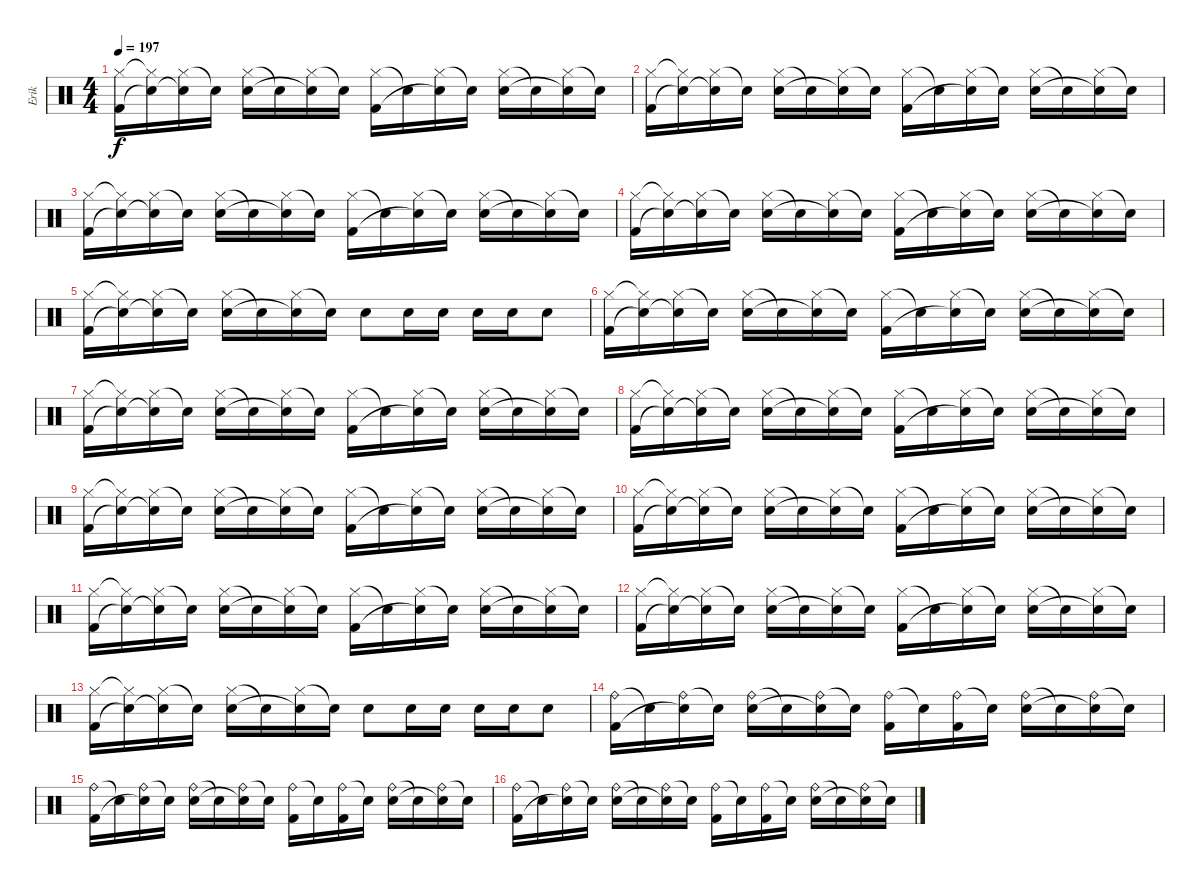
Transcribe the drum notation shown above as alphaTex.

\track ("Erik" "Erik") {instrument percussion}
\staff {score}
\articulation defaults
\ts (4 4)
\tempo 197
\clef neutral
\ks c
("Hi-Hat (closed)" "Kick (hit) 2").16{dy f} ("Hi-Hat (closed)"{t} "Electric Snare (hit)"{t}).16 ("Hi-Hat (closed)" "Snare (hit)"{t}).16 "Snare (hit)"{t}.16 ("Hi-Hat (closed)" "Electric Snare (hit)").16 "Snare (hit)"{t}.16 ("Hi-Hat (closed)" "Snare (hit)"{t}).16 "Snare (hit)"{t}.16 ("Hi-Hat (closed)" "Kick (hit) 2").16 "Snare (hit)"{t}.16 ("Hi-Hat (closed)" "Snare (hit)"{t}).16 "Snare (hit)"{t}.16 ("Hi-Hat (closed)" "Electric Snare (hit)").16 "Snare (hit)"{t}.16 ("Hi-Hat (closed)" "Snare (hit)"{t}).16 "Snare (hit)"{t}.16 |
("Hi-Hat (closed)" "Kick (hit) 2").16 ("Hi-Hat (closed)"{t} "Electric Snare (hit)"{t}).16 ("Hi-Hat (closed)" "Snare (hit)"{t}).16 "Snare (hit)"{t}.16 ("Hi-Hat (closed)" "Electric Snare (hit)").16 "Snare (hit)"{t}.16 ("Hi-Hat (closed)" "Snare (hit)"{t}).16 "Snare (hit)"{t}.16 ("Hi-Hat (closed)" "Kick (hit) 2").16 "Snare (hit)"{t}.16 ("Hi-Hat (closed)" "Snare (hit)"{t}).16 "Snare (hit)"{t}.16 ("Hi-Hat (closed)" "Electric Snare (hit)").16 "Snare (hit)"{t}.16 ("Hi-Hat (closed)" "Snare (hit)"{t}).16 "Snare (hit)"{t}.16 |
("Hi-Hat (closed)" "Kick (hit) 2").16 ("Hi-Hat (closed)"{t} "Electric Snare (hit)"{t}).16 ("Hi-Hat (closed)" "Snare (hit)"{t}).16 "Snare (hit)"{t}.16 ("Hi-Hat (closed)" "Electric Snare (hit)").16 "Snare (hit)"{t}.16 ("Hi-Hat (closed)" "Snare (hit)"{t}).16 "Snare (hit)"{t}.16 ("Hi-Hat (closed)" "Kick (hit) 2").16 "Snare (hit)"{t}.16 ("Hi-Hat (closed)" "Snare (hit)"{t}).16 "Snare (hit)"{t}.16 ("Hi-Hat (closed)" "Electric Snare (hit)").16 "Snare (hit)"{t}.16 ("Hi-Hat (closed)" "Snare (hit)"{t}).16 "Snare (hit)"{t}.16 |
("Hi-Hat (closed)" "Kick (hit) 2").16 ("Hi-Hat (closed)"{t} "Electric Snare (hit)"{t}).16 ("Hi-Hat (closed)" "Snare (hit)"{t}).16 "Snare (hit)"{t}.16 ("Hi-Hat (closed)" "Electric Snare (hit)").16 "Snare (hit)"{t}.16 ("Hi-Hat (closed)" "Snare (hit)"{t}).16 "Snare (hit)"{t}.16 ("Hi-Hat (closed)" "Kick (hit) 2").16 "Snare (hit)"{t}.16 ("Hi-Hat (closed)" "Snare (hit)"{t}).16 "Snare (hit)"{t}.16 ("Hi-Hat (closed)" "Electric Snare (hit)").16 "Snare (hit)"{t}.16 ("Hi-Hat (closed)" "Snare (hit)"{t}).16 "Snare (hit)"{t}.16 |
("Hi-Hat (closed)" "Kick (hit) 2").16 ("Hi-Hat (closed)"{t} "Electric Snare (hit)"{t}).16 ("Hi-Hat (closed)" "Snare (hit)"{t}).16 "Snare (hit)"{t}.16 ("Hi-Hat (closed)" "Electric Snare (hit)").16 "Snare (hit)"{t}.16 ("Hi-Hat (closed)" "Snare (hit)"{t}).16 "Snare (hit)"{t}.16 "Electric Snare (hit)".8 "Electric Snare (hit)".16 "Electric Snare (hit)".16 "Electric Snare (hit)".16 "Electric Snare (hit)".16 "Electric Snare (hit)".8 |
("Hi-Hat (closed)" "Kick (hit) 2").16 ("Hi-Hat (closed)"{t} "Electric Snare (hit)"{t}).16 ("Hi-Hat (closed)" "Snare (hit)"{t}).16 "Snare (hit)"{t}.16 ("Hi-Hat (closed)" "Electric Snare (hit)").16 "Snare (hit)"{t}.16 ("Hi-Hat (closed)" "Snare (hit)"{t}).16 "Snare (hit)"{t}.16 ("Hi-Hat (closed)" "Kick (hit) 2").16 "Snare (hit)"{t}.16 ("Hi-Hat (closed)" "Snare (hit)"{t}).16 "Snare (hit)"{t}.16 ("Hi-Hat (closed)" "Electric Snare (hit)").16 "Snare (hit)"{t}.16 ("Hi-Hat (closed)" "Snare (hit)"{t}).16 "Snare (hit)"{t}.16 |
("Hi-Hat (closed)" "Kick (hit) 2").16 ("Hi-Hat (closed)"{t} "Electric Snare (hit)"{t}).16 ("Hi-Hat (closed)" "Snare (hit)"{t}).16 "Snare (hit)"{t}.16 ("Hi-Hat (closed)" "Electric Snare (hit)").16 "Snare (hit)"{t}.16 ("Hi-Hat (closed)" "Snare (hit)"{t}).16 "Snare (hit)"{t}.16 ("Hi-Hat (closed)" "Kick (hit) 2").16 "Snare (hit)"{t}.16 ("Hi-Hat (closed)" "Snare (hit)"{t}).16 "Snare (hit)"{t}.16 ("Hi-Hat (closed)" "Electric Snare (hit)").16 "Snare (hit)"{t}.16 ("Hi-Hat (closed)" "Snare (hit)"{t}).16 "Snare (hit)"{t}.16 |
("Hi-Hat (closed)" "Kick (hit) 2").16 ("Hi-Hat (closed)"{t} "Electric Snare (hit)"{t}).16 ("Hi-Hat (closed)" "Snare (hit)"{t}).16 "Snare (hit)"{t}.16 ("Hi-Hat (closed)" "Electric Snare (hit)").16 "Snare (hit)"{t}.16 ("Hi-Hat (closed)" "Snare (hit)"{t}).16 "Snare (hit)"{t}.16 ("Hi-Hat (closed)" "Kick (hit) 2").16 "Snare (hit)"{t}.16 ("Hi-Hat (closed)" "Snare (hit)"{t}).16 "Snare (hit)"{t}.16 ("Hi-Hat (closed)" "Electric Snare (hit)").16 "Snare (hit)"{t}.16 ("Hi-Hat (closed)" "Snare (hit)"{t}).16 "Snare (hit)"{t}.16 |
("Hi-Hat (closed)" "Kick (hit) 2").16 ("Hi-Hat (closed)"{t} "Electric Snare (hit)"{t}).16 ("Hi-Hat (closed)" "Snare (hit)"{t}).16 "Snare (hit)"{t}.16 ("Hi-Hat (closed)" "Electric Snare (hit)").16 "Snare (hit)"{t}.16 ("Hi-Hat (closed)" "Snare (hit)"{t}).16 "Snare (hit)"{t}.16 ("Hi-Hat (closed)" "Kick (hit) 2").16 "Snare (hit)"{t}.16 ("Hi-Hat (closed)" "Snare (hit)"{t}).16 "Snare (hit)"{t}.16 ("Hi-Hat (closed)" "Electric Snare (hit)").16 "Snare (hit)"{t}.16 ("Hi-Hat (closed)" "Snare (hit)"{t}).16 "Snare (hit)"{t}.16 |
("Hi-Hat (closed)" "Kick (hit) 2").16 ("Hi-Hat (closed)"{t} "Electric Snare (hit)"{t}).16 ("Hi-Hat (closed)" "Snare (hit)"{t}).16 "Snare (hit)"{t}.16 ("Hi-Hat (closed)" "Electric Snare (hit)").16 "Snare (hit)"{t}.16 ("Hi-Hat (closed)" "Snare (hit)"{t}).16 "Snare (hit)"{t}.16 ("Hi-Hat (closed)" "Kick (hit) 2").16 "Snare (hit)"{t}.16 ("Hi-Hat (closed)" "Snare (hit)"{t}).16 "Snare (hit)"{t}.16 ("Hi-Hat (closed)" "Electric Snare (hit)").16 "Snare (hit)"{t}.16 ("Hi-Hat (closed)" "Snare (hit)"{t}).16 "Snare (hit)"{t}.16 |
("Hi-Hat (closed)" "Kick (hit) 2").16 ("Hi-Hat (closed)"{t} "Electric Snare (hit)"{t}).16 ("Hi-Hat (closed)" "Snare (hit)"{t}).16 "Snare (hit)"{t}.16 ("Hi-Hat (closed)" "Electric Snare (hit)").16 "Snare (hit)"{t}.16 ("Hi-Hat (closed)" "Snare (hit)"{t}).16 "Snare (hit)"{t}.16 ("Hi-Hat (closed)" "Kick (hit) 2").16 "Snare (hit)"{t}.16 ("Hi-Hat (closed)" "Snare (hit)"{t}).16 "Snare (hit)"{t}.16 ("Hi-Hat (closed)" "Electric Snare (hit)").16 "Snare (hit)"{t}.16 ("Hi-Hat (closed)" "Snare (hit)"{t}).16 "Snare (hit)"{t}.16 |
("Hi-Hat (closed)" "Kick (hit) 2").16 ("Hi-Hat (closed)"{t} "Electric Snare (hit)"{t}).16 ("Hi-Hat (closed)" "Snare (hit)"{t}).16 "Snare (hit)"{t}.16 ("Hi-Hat (closed)" "Electric Snare (hit)").16 "Snare (hit)"{t}.16 ("Hi-Hat (closed)" "Snare (hit)"{t}).16 "Snare (hit)"{t}.16 ("Hi-Hat (closed)" "Kick (hit) 2").16 "Snare (hit)"{t}.16 ("Hi-Hat (closed)" "Snare (hit)"{t}).16 "Snare (hit)"{t}.16 ("Hi-Hat (closed)" "Electric Snare (hit)").16 "Snare (hit)"{t}.16 ("Hi-Hat (closed)" "Snare (hit)"{t}).16 "Snare (hit)"{t}.16 |
("Hi-Hat (closed)" "Kick (hit) 2").16 ("Hi-Hat (closed)"{t} "Electric Snare (hit)"{t}).16 ("Hi-Hat (closed)" "Snare (hit)"{t}).16 "Snare (hit)"{t}.16 ("Hi-Hat (closed)" "Electric Snare (hit)").16 "Snare (hit)"{t}.16 ("Hi-Hat (closed)" "Snare (hit)"{t}).16 "Snare (hit)"{t}.16 "Electric Snare (hit)".8 "Electric Snare (hit)".16 "Electric Snare (hit)".16 "Electric Snare (hit)".16 "Electric Snare (hit)".16 "Electric Snare (hit)".8 |
("Ride (bell)" "Kick (hit) 2").16 "Snare (hit)"{t}.16 ("Ride (bell)" "Snare (hit)"{t}).16 "Snare (hit)"{t}.16 ("Ride (bell)" "Electric Snare (hit)").16 "Snare (hit)"{t}.16 ("Ride (bell)" "Snare (hit)"{t}).16 "Snare (hit)"{t}.16 ("Ride (bell)" "Kick (hit) 2").16 "Snare (hit)"{t}.16 ("Ride (bell)" "Kick (hit) 2").16 "Snare (hit)"{t}.16 ("Ride (bell)" "Electric Snare (hit)").16 "Snare (hit)"{t}.16 ("Ride (bell)" "Snare (hit)"{t}).16 "Snare (hit)"{t}.16 |
("Ride (bell)" "Kick (hit) 2").16 "Snare (hit)"{t}.16 ("Ride (bell)" "Snare (hit)"{t}).16 "Snare (hit)"{t}.16 ("Ride (bell)" "Electric Snare (hit)").16 "Snare (hit)"{t}.16 ("Ride (bell)" "Snare (hit)"{t}).16 "Snare (hit)"{t}.16 ("Ride (bell)" "Kick (hit) 2").16 "Snare (hit)"{t}.16 ("Ride (bell)" "Kick (hit) 2").16 "Snare (hit)"{t}.16 ("Ride (bell)" "Electric Snare (hit)").16 "Snare (hit)"{t}.16 ("Ride (bell)" "Snare (hit)"{t}).16 "Snare (hit)"{t}.16 |
("Ride (bell)" "Kick (hit) 2").16 "Snare (hit)"{t}.16 ("Ride (bell)" "Snare (hit)"{t}).16 "Snare (hit)"{t}.16 ("Ride (bell)" "Electric Snare (hit)").16 "Snare (hit)"{t}.16 ("Ride (bell)" "Snare (hit)"{t}).16 "Snare (hit)"{t}.16 ("Ride (bell)" "Kick (hit) 2").16 "Snare (hit)"{t}.16 ("Ride (bell)" "Kick (hit) 2").16 "Snare (hit)"{t}.16 ("Ride (bell)" "Electric Snare (hit)").16 "Snare (hit)"{t}.16 ("Ride (bell)" "Snare (hit)"{t}).16 "Snare (hit)"{t}.16
